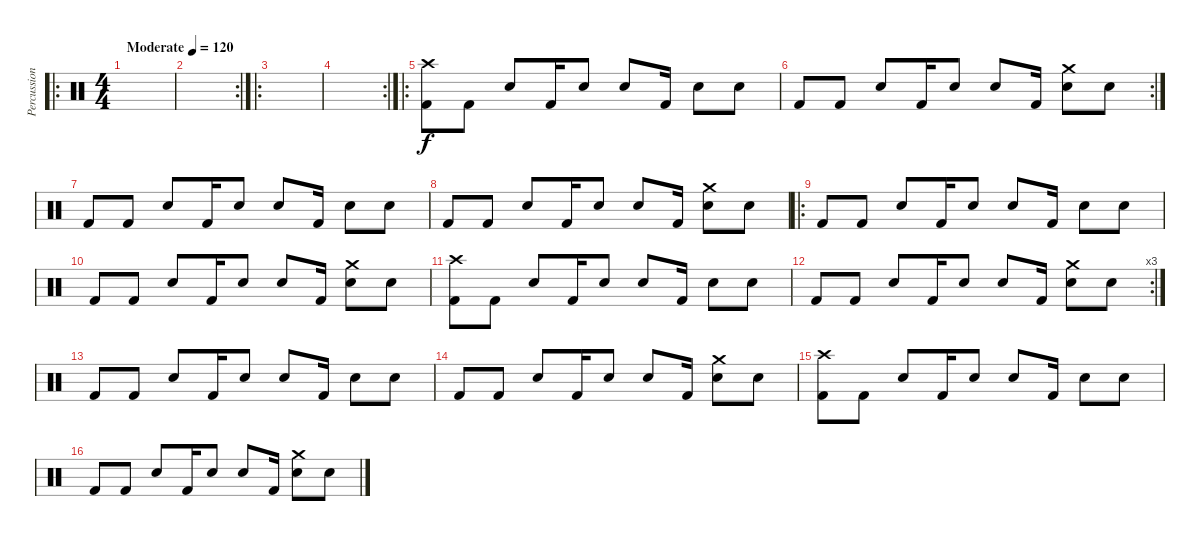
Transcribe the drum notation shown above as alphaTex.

\track ("Percussion" "Percussion") {instrument percussion}
\staff {score}
\articulation defaults
\ro
\ts (4 4)
\tempo (120 "Moderate")
\clef neutral
\ks c
|
\rc 2
|
\ro
|
\rc 2
|
\ro
("Crash high (hit)" "Kick (hit) 2").8 "Kick (hit) 2".8 "Snare (hit) 2".8 "Kick (hit) 2".16 "Snare (hit) 2".8 "Snare (hit) 2".8 "Kick (hit) 2".16 "Snare (hit) 2".8 "Snare (hit)".8 |
\rc 2 "Kick (hit) 2".8 "Kick (hit) 2".8 "Snare (hit) 2".8 "Kick (hit) 2".16 "Snare (hit) 2".8 "Snare (hit) 2".8 "Kick (hit) 2".16
("Crash medium (hit)" "Snare (hit) 2").8 "Snare (hit)".8 |
"Kick (hit) 2".8 "Kick (hit) 2".8 "Snare (hit) 2".8 "Kick (hit) 2".16 "Snare (hit) 2".8 "Snare (hit) 2".8 "Kick (hit) 2".16 "Snare (hit) 2".8 "Snare (hit)".8 |
"Kick (hit) 2".8 "Kick (hit) 2".8 "Snare (hit) 2".8 "Kick (hit) 2".16 "Snare (hit) 2".8 "Snare (hit) 2".8 "Kick (hit) 2".16 ("Crash medium (hit)" "Snare (hit) 2").8 "Snare (hit)".8 |
\ro "Kick (hit) 2".8 "Kick (hit) 2".8 "Snare (hit) 2".8 "Kick (hit) 2".16 "Snare (hit) 2".8 "Snare (hit) 2".8 "Kick (hit) 2".16 "Snare (hit) 2".8 "Snare (hit)".8
|
"Kick (hit) 2".8 "Kick (hit) 2".8 "Snare (hit) 2".8 "Kick (hit) 2".16 "Snare (hit) 2".8 "Snare (hit) 2".8 "Kick (hit) 2".16 ("Crash medium (hit)" "Snare (hit) 2").8 "Snare (hit)".8 |
("Crash high (hit)" "Kick (hit) 2").8 "Kick (hit) 2".8 "Snare (hit) 2".8 "Kick (hit) 2".16 "Snare (hit) 2".8 "Snare (hit) 2".8 "Kick (hit) 2".16 "Snare (hit) 2".8 "Snare (hit)".8 |
\rc 3 "Kick (hit) 2".8 "Kick (hit) 2".8 "Snare (hit) 2".8 "Kick (hit) 2".16 "Snare (hit) 2".8 "Snare (hit) 2".8 "Kick (hit) 2".16
("Crash medium (hit)" "Snare (hit) 2").8 "Snare (hit)".8 |
"Kick (hit) 2".8 "Kick (hit) 2".8 "Snare (hit) 2".8 "Kick (hit) 2".16 "Snare (hit) 2".8 "Snare (hit) 2".8 "Kick (hit) 2".16 "Snare (hit) 2".8 "Snare (hit)".8 |
"Kick (hit) 2".8 "Kick (hit) 2".8 "Snare (hit) 2".8 "Kick (hit) 2".16 "Snare (hit) 2".8 "Snare (hit) 2".8 "Kick (hit) 2".16 ("Crash medium (hit)" "Snare (hit) 2").8 "Snare (hit)".8 |
("Crash high (hit)" "Kick (hit) 2").8 "Kick (hit) 2".8 "Snare (hit) 2".8 "Kick (hit) 2".16 "Snare (hit) 2".8 "Snare (hit) 2".8 "Kick (hit) 2".16 "Snare (hit) 2".8 "Snare (hit)".8 |
"Kick (hit) 2".8 "Kick (hit) 2".8 "Snare (hit) 2".8 "Kick (hit) 2".16 "Snare (hit) 2".8 "Snare (hit) 2".8 "Kick (hit) 2".16 ("Crash medium (hit)" "Snare (hit) 2").8 "Snare (hit)".8
